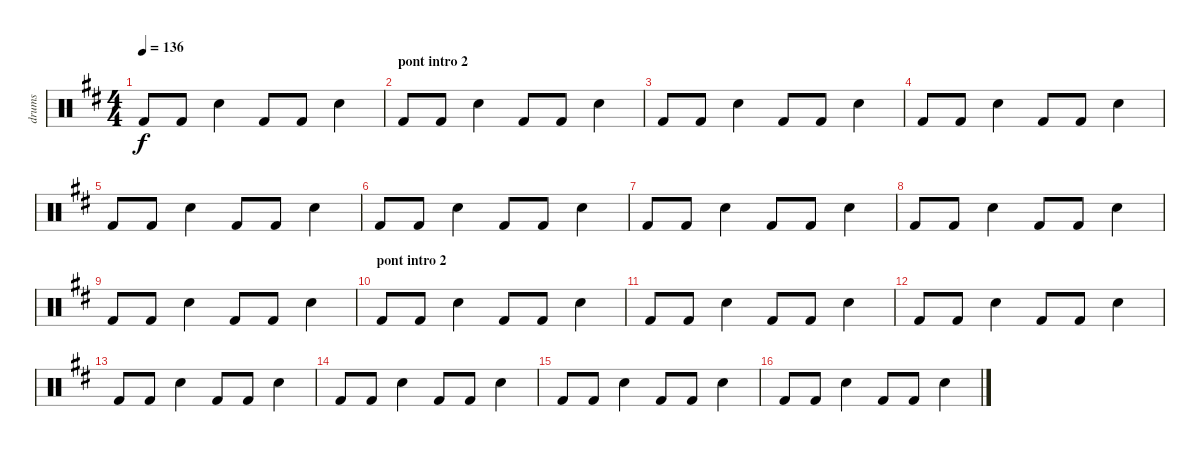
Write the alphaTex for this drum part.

\track ("drums" "drums") {instrument percussion}
\staff {score}
\articulation defaults
\ts (4 4)
\tempo 136
\clef neutral
\ks d "Kick (hit) 2".8{dy f} "Kick (hit) 2".8 "Electric Snare (hit)".4 "Kick (hit) 2".8 "Kick (hit) 2".8 "Electric Snare (hit)".4
|
\section ("" "pont intro 2")
"Kick (hit) 2".8 "Kick (hit) 2".8 "Electric Snare (hit)".4 "Kick (hit) 2".8 "Kick (hit) 2".8 "Electric Snare (hit)".4 |
"Kick (hit) 2".8 "Kick (hit) 2".8 "Electric Snare (hit)".4 "Kick (hit) 2".8 "Kick (hit) 2".8 "Electric Snare (hit)".4 |
"Kick (hit) 2".8 "Kick (hit) 2".8 "Electric Snare (hit)".4 "Kick (hit) 2".8 "Kick (hit) 2".8 "Electric Snare (hit)".4 |
"Kick (hit) 2".8 "Kick (hit) 2".8 "Electric Snare (hit)".4 "Kick (hit) 2".8 "Kick (hit) 2".8 "Electric Snare (hit)".4 |
"Kick (hit) 2".8 "Kick (hit) 2".8 "Electric Snare (hit)".4 "Kick (hit) 2".8 "Kick (hit) 2".8 "Electric Snare (hit)".4 |
"Kick (hit) 2".8 "Kick (hit) 2".8 "Electric Snare (hit)".4 "Kick (hit) 2".8 "Kick (hit) 2".8 "Electric Snare (hit)".4 |
"Kick (hit) 2".8 "Kick (hit) 2".8 "Electric Snare (hit)".4 "Kick (hit) 2".8 "Kick (hit) 2".8 "Electric Snare (hit)".4 |
"Kick (hit) 2".8 "Kick (hit) 2".8 "Electric Snare (hit)".4 "Kick (hit) 2".8 "Kick (hit) 2".8 "Electric Snare (hit)".4 |
\section ("" "pont intro 2")
"Kick (hit) 2".8 "Kick (hit) 2".8 "Electric Snare (hit)".4 "Kick (hit) 2".8 "Kick (hit) 2".8 "Electric Snare (hit)".4 |
"Kick (hit) 2".8 "Kick (hit) 2".8 "Electric Snare (hit)".4 "Kick (hit) 2".8 "Kick (hit) 2".8 "Electric Snare (hit)".4 |
"Kick (hit) 2".8 "Kick (hit) 2".8 "Electric Snare (hit)".4 "Kick (hit) 2".8 "Kick (hit) 2".8 "Electric Snare (hit)".4 |
"Kick (hit) 2".8 "Kick (hit) 2".8 "Electric Snare (hit)".4 "Kick (hit) 2".8 "Kick (hit) 2".8 "Electric Snare (hit)".4 |
"Kick (hit) 2".8 "Kick (hit) 2".8 "Electric Snare (hit)".4 "Kick (hit) 2".8 "Kick (hit) 2".8 "Electric Snare (hit)".4 |
"Kick (hit) 2".8 "Kick (hit) 2".8 "Electric Snare (hit)".4 "Kick (hit) 2".8 "Kick (hit) 2".8 "Electric Snare (hit)".4 |
"Kick (hit) 2".8 "Kick (hit) 2".8 "Electric Snare (hit)".4 "Kick (hit) 2".8 "Kick (hit) 2".8 "Electric Snare (hit)".4
